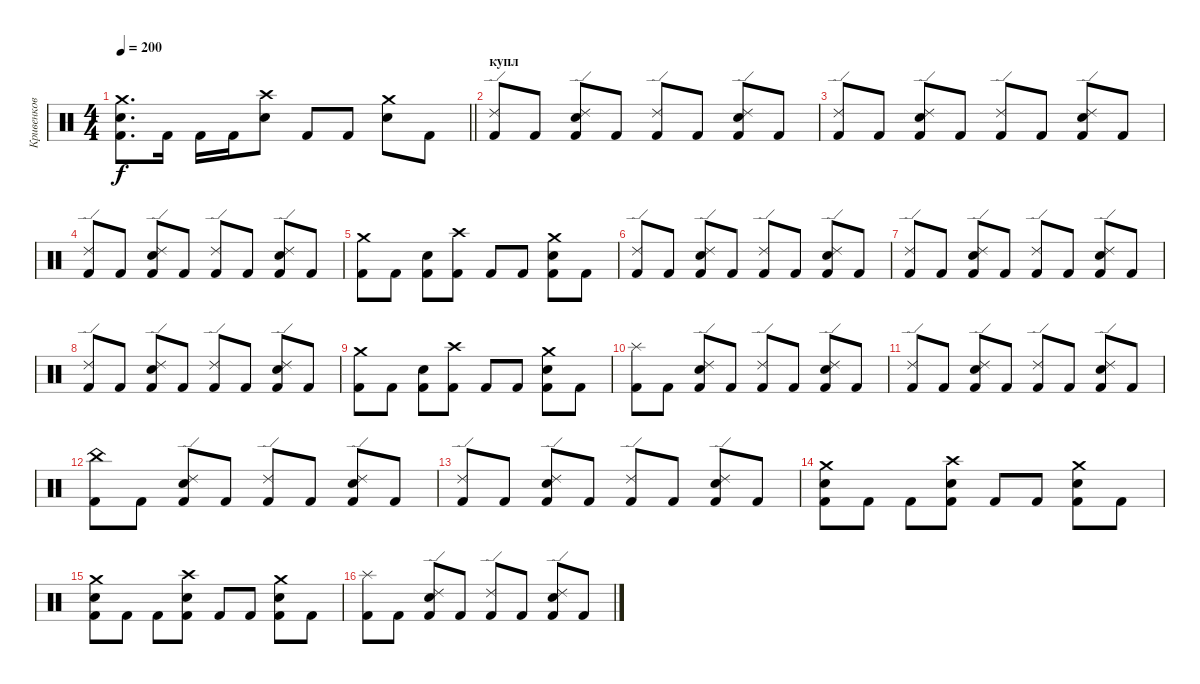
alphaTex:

\track ("Кривенков" "Кривенков") {instrument percussion}
\staff {score}
\articulation defaults
\ts (4 4)
\tempo 200
\clef neutral
\barLineRight lightlight
\ks c
("Crash medium (hit)" "Electric Snare (hit)" "Kick (hit) 2").8{d dy f} "Kick (hit) 2".16 "Kick (hit) 2".16 "Kick (hit) 2".16 ("Crash high (hit)" "Electric Snare (hit)").8 "Kick (hit) 2".8 "Kick (hit) 2".8 ("Crash medium (hit)" "Electric Snare (hit)").8 "Kick (hit) 2".8 |
\section ("" "купл ")
("Ride (edge) 2" "Kick (hit) 2").8 "Kick (hit) 2".8 ("Ride (edge) 2" "Electric Snare (hit)" "Kick (hit) 2").8 "Kick (hit) 2".8 ("Ride (edge) 2" "Kick (hit) 2").8 "Kick (hit) 2".8 ("Ride (edge) 2" "Electric Snare (hit)" "Kick (hit) 2").8 "Kick (hit) 2".8 |
("Ride (edge) 2" "Kick (hit) 2").8 "Kick (hit) 2".8 ("Ride (edge) 2" "Electric Snare (hit)" "Kick (hit) 2").8 "Kick (hit) 2".8 ("Ride (edge) 2" "Kick (hit) 2").8 "Kick (hit) 2".8 ("Ride (edge) 2" "Electric Snare (hit)" "Kick (hit) 2").8 "Kick (hit) 2".8 |
("Ride (edge) 2" "Kick (hit) 2").8 "Kick (hit) 2".8 ("Ride (edge) 2" "Electric Snare (hit)" "Kick (hit) 2").8 "Kick (hit) 2".8 ("Ride (edge) 2" "Kick (hit) 2").8 "Kick (hit) 2".8 ("Ride (edge) 2" "Electric Snare (hit)" "Kick (hit) 2").8 "Kick (hit) 2".8 |
("Crash medium (hit)" "Kick (hit) 2").8 "Kick (hit) 2".8 ("Electric Snare (hit)" "Kick (hit) 2").8 ("Crash high (hit)" "Kick (hit) 2").8 "Kick (hit) 2".8 "Kick (hit) 2".8 ("Crash medium (hit)" "Electric Snare (hit)" "Kick (hit) 2").8 "Kick (hit) 2".8 |
("Ride (edge) 2" "Kick (hit) 2").8 "Kick (hit) 2".8 ("Ride (edge) 2" "Electric Snare (hit)" "Kick (hit) 2").8 "Kick (hit) 2".8 ("Ride (edge) 2" "Kick (hit) 2").8 "Kick (hit) 2".8 ("Ride (edge) 2" "Electric Snare (hit)" "Kick (hit) 2").8 "Kick (hit) 2".8 |
("Ride (edge) 2" "Kick (hit) 2").8 "Kick (hit) 2".8 ("Ride (edge) 2" "Electric Snare (hit)" "Kick (hit) 2").8 "Kick (hit) 2".8 ("Ride (edge) 2" "Kick (hit) 2").8 "Kick (hit) 2".8 ("Ride (edge) 2" "Electric Snare (hit)" "Kick (hit) 2").8 "Kick (hit) 2".8 |
("Ride (edge) 2" "Kick (hit) 2").8 "Kick (hit) 2".8 ("Ride (edge) 2" "Electric Snare (hit)" "Kick (hit) 2").8 "Kick (hit) 2".8 ("Ride (edge) 2" "Kick (hit) 2").8 "Kick (hit) 2".8 ("Ride (edge) 2" "Electric Snare (hit)" "Kick (hit) 2").8 "Kick (hit) 2".8 |
("Crash medium (hit)" "Kick (hit) 2").8 "Kick (hit) 2".8 ("Electric Snare (hit)" "Kick (hit) 2").8 ("Crash high (hit)" "Kick (hit) 2").8 "Kick (hit) 2".8 "Kick (hit) 2".8 ("Crash medium (hit)" "Electric Snare (hit)" "Kick (hit) 2").8 "Kick (hit) 2".8 |
("Splash (hit)" "Kick (hit) 2").8 "Kick (hit) 2".8 ("Ride (edge) 2" "Electric Snare (hit)" "Kick (hit) 2").8 "Kick (hit) 2".8 ("Ride (edge) 2" "Kick (hit) 2").8 "Kick (hit) 2".8 ("Ride (edge) 2" "Electric Snare (hit)" "Kick (hit) 2").8 "Kick (hit) 2".8 |
("Ride (edge) 2" "Kick (hit) 2").8 "Kick (hit) 2".8 ("Ride (edge) 2" "Electric Snare (hit)" "Kick (hit) 2").8 "Kick (hit) 2".8 ("Ride (edge) 2" "Kick (hit) 2").8 "Kick (hit) 2".8 ("Ride (edge) 2" "Electric Snare (hit)" "Kick (hit) 2").8 "Kick (hit) 2".8 |
("China (hit)" "Kick (hit) 2").8 "Kick (hit) 2".8 ("Ride (edge) 2" "Electric Snare (hit)" "Kick (hit) 2").8 "Kick (hit) 2".8 ("Ride (edge) 2" "Kick (hit) 2").8 "Kick (hit) 2".8 ("Ride (edge) 2" "Electric Snare (hit)" "Kick (hit) 2").8 "Kick (hit) 2".8 |
("Ride (edge) 2" "Kick (hit) 2").8 "Kick (hit) 2".8 ("Ride (edge) 2" "Electric Snare (hit)" "Kick (hit) 2").8 "Kick (hit) 2".8 ("Ride (edge) 2" "Kick (hit) 2").8 "Kick (hit) 2".8 ("Ride (edge) 2" "Electric Snare (hit)" "Kick (hit) 2").8 "Kick (hit) 2".8 |
("Crash medium (hit)" "Electric Snare (hit)" "Kick (hit) 2").8 "Kick (hit) 2".8 "Kick (hit) 2".8 ("Crash high (hit)" "Electric Snare (hit)" "Kick (hit) 2").8 "Kick (hit) 2".8 "Kick (hit) 2".8 ("Crash medium (hit)" "Electric Snare (hit)" "Kick (hit) 2").8 "Kick (hit) 2".8 |
("Crash medium (hit)" "Electric Snare (hit)" "Kick (hit) 2").8 "Kick (hit) 2".8 "Kick (hit) 2".8 ("Crash high (hit)" "Electric Snare (hit)" "Kick (hit) 2").8 "Kick (hit) 2".8 "Kick (hit) 2".8 ("Crash medium (hit)" "Electric Snare (hit)" "Kick (hit) 2").8 "Kick (hit) 2".8 |
("Splash (hit)" "Kick (hit) 2").8 "Kick (hit) 2".8 ("Ride (edge) 2" "Electric Snare (hit)" "Kick (hit) 2").8 "Kick (hit) 2".8 ("Ride (edge) 2" "Kick (hit) 2").8 "Kick (hit) 2".8 ("Ride (edge) 2" "Electric Snare (hit)" "Kick (hit) 2").8 "Kick (hit) 2".8
